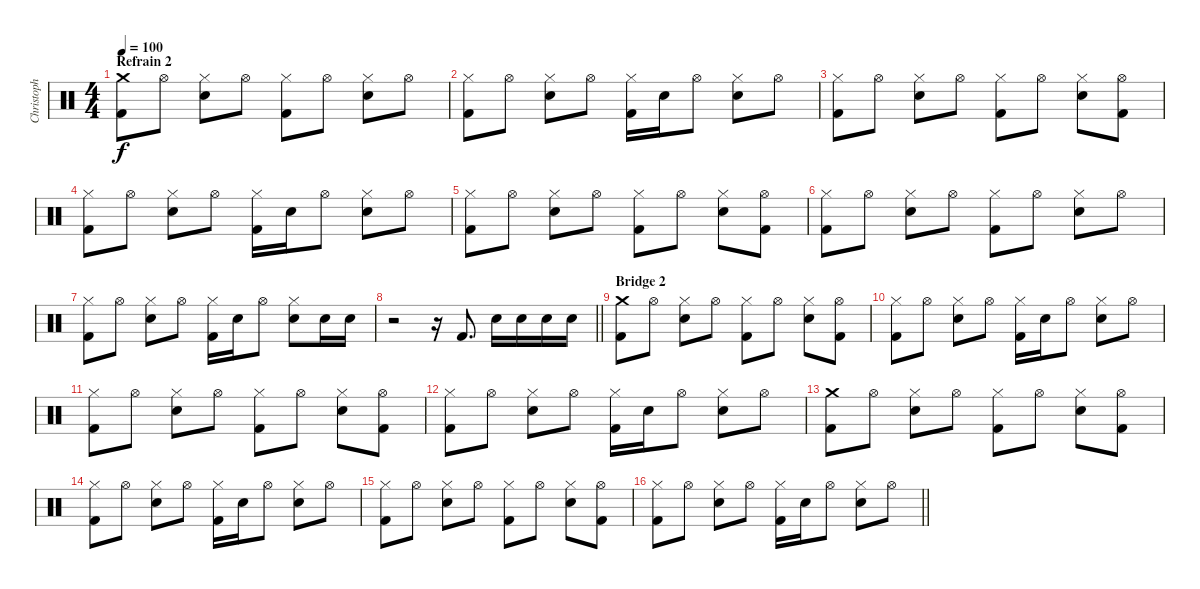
\track ("Christoph - Drums" "Christoph ") {instrument percussion}
\staff {score}
\articulation defaults
\ts (4 4)
\section ("" "Refrain 2")
\tempo 100
\clef neutral
\ks c
("Crash medium (hit)" "Kick (hit) 2").8{dy f} "Hi-Hat (open)".8 ("Hi-Hat (closed)" "Snare (hit) 2").8 "Hi-Hat (open)".8 ("Hi-Hat (closed)" "Kick (hit) 2").8 "Hi-Hat (open)".8 ("Hi-Hat (closed)" "Snare (hit) 2").8 "Hi-Hat (open)".8 |
("Hi-Hat (closed)" "Kick (hit) 2").8 "Hi-Hat (open)".8 ("Hi-Hat (closed)" "Snare (hit) 2").8 "Hi-Hat (open)".8 ("Hi-Hat (closed)" "Kick (hit) 2").16 "Snare (hit) 2".16 "Hi-Hat (open)".8 ("Hi-Hat (closed)" "Snare (hit) 2").8 "Hi-Hat (open)".8 |
("Hi-Hat (closed)" "Kick (hit) 2").8 "Hi-Hat (open)".8 ("Hi-Hat (closed)" "Snare (hit) 2").8 "Hi-Hat (open)".8 ("Hi-Hat (closed)" "Kick (hit) 2").8 "Hi-Hat (open)".8 ("Hi-Hat (closed)" "Snare (hit) 2").8 ("Hi-Hat (open)" "Kick (hit) 2").8 |
("Hi-Hat (closed)" "Kick (hit) 2").8 "Hi-Hat (open)".8 ("Hi-Hat (closed)" "Snare (hit) 2").8 "Hi-Hat (open)".8 ("Hi-Hat (closed)" "Kick (hit) 2").16 "Snare (hit) 2".16 "Hi-Hat (open)".8 ("Hi-Hat (closed)" "Snare (hit) 2").8 "Hi-Hat (open)".8 |
("Hi-Hat (closed)" "Kick (hit) 2").8 "Hi-Hat (open)".8 ("Hi-Hat (closed)" "Snare (hit) 2").8 "Hi-Hat (open)".8 ("Hi-Hat (closed)" "Kick (hit) 2").8 "Hi-Hat (open)".8 ("Hi-Hat (closed)" "Snare (hit) 2").8 ("Hi-Hat (open)" "Kick (hit) 2").8 |
("Hi-Hat (closed)" "Kick (hit) 2").8 "Hi-Hat (open)".8 ("Hi-Hat (closed)" "Snare (hit) 2").8 "Hi-Hat (open)".8 ("Hi-Hat (closed)" "Kick (hit) 2").8 "Hi-Hat (open)".8 ("Hi-Hat (closed)" "Snare (hit) 2").8 "Hi-Hat (open)".8 |
("Hi-Hat (closed)" "Kick (hit) 2").8 "Hi-Hat (open)".8 ("Hi-Hat (closed)" "Snare (hit) 2").8 "Hi-Hat (open)".8 ("Hi-Hat (closed)" "Kick (hit) 2").16 "Snare (hit) 2".16 "Hi-Hat (open)".8 ("Hi-Hat (closed)" "Snare (hit) 2").8 "Snare (hit) 2".16 "Snare (hit) 2".16 |
\barLineRight lightlight
r.2 r.16 "Kick (hit) 2".8{d} "Snare (hit) 2".16 "Snare (hit) 2".16 "Snare (hit) 2".16 "Snare (hit) 2".16 |
\section ("" "Bridge 2")
("Crash medium (hit)" "Kick (hit) 2").8 "Hi-Hat (open)".8 ("Hi-Hat (closed)" "Snare (hit) 2").8 "Hi-Hat (open)".8 ("Hi-Hat (closed)" "Kick (hit) 2").8 "Hi-Hat (open)".8 ("Hi-Hat (closed)" "Snare (hit) 2").8 ("Hi-Hat (open)" "Kick (hit) 2").8 |
("Hi-Hat (closed)" "Kick (hit) 2").8 "Hi-Hat (open)".8 ("Hi-Hat (closed)" "Snare (hit) 2").8 "Hi-Hat (open)".8 ("Hi-Hat (closed)" "Kick (hit) 2").16 "Snare (hit) 2".16 "Hi-Hat (open)".8 ("Hi-Hat (closed)" "Snare (hit) 2").8 "Hi-Hat (open)".8 |
("Hi-Hat (closed)" "Kick (hit) 2").8 "Hi-Hat (open)".8 ("Hi-Hat (closed)" "Snare (hit) 2").8 "Hi-Hat (open)".8 ("Hi-Hat (closed)" "Kick (hit) 2").8 "Hi-Hat (open)".8 ("Hi-Hat (closed)" "Snare (hit) 2").8 ("Hi-Hat (open)" "Kick (hit) 2").8 |
("Hi-Hat (closed)" "Kick (hit) 2").8 "Hi-Hat (open)".8 ("Hi-Hat (closed)" "Snare (hit) 2").8 "Hi-Hat (open)".8 ("Hi-Hat (closed)" "Kick (hit) 2").16 "Snare (hit) 2".16 "Hi-Hat (open)".8 ("Hi-Hat (closed)" "Snare (hit) 2").8 "Hi-Hat (open)".8 |
("Crash medium (hit)" "Kick (hit) 2").8 "Hi-Hat (open)".8 ("Hi-Hat (closed)" "Snare (hit) 2").8 "Hi-Hat (open)".8 ("Hi-Hat (closed)" "Kick (hit) 2").8 "Hi-Hat (open)".8 ("Hi-Hat (closed)" "Snare (hit) 2").8 ("Hi-Hat (open)" "Kick (hit) 2").8 |
("Hi-Hat (closed)" "Kick (hit) 2").8 "Hi-Hat (open)".8 ("Hi-Hat (closed)" "Snare (hit) 2").8 "Hi-Hat (open)".8 ("Hi-Hat (closed)" "Kick (hit) 2").16 "Snare (hit) 2".16 "Hi-Hat (open)".8 ("Hi-Hat (closed)" "Snare (hit) 2").8 "Hi-Hat (open)".8 |
("Hi-Hat (closed)" "Kick (hit) 2").8 "Hi-Hat (open)".8 ("Hi-Hat (closed)" "Snare (hit) 2").8 "Hi-Hat (open)".8 ("Hi-Hat (closed)" "Kick (hit) 2").8 "Hi-Hat (open)".8 ("Hi-Hat (closed)" "Snare (hit) 2").8 ("Hi-Hat (open)" "Kick (hit) 2").8 |
\barLineRight lightlight
("Hi-Hat (closed)" "Kick (hit) 2").8 "Hi-Hat (open)".8 ("Hi-Hat (closed)" "Snare (hit) 2").8 "Hi-Hat (open)".8 ("Hi-Hat (closed)" "Kick (hit) 2").16 "Snare (hit) 2".16 "Hi-Hat (open)".8 ("Hi-Hat (closed)" "Snare (hit) 2").8 "Hi-Hat (open)".8
